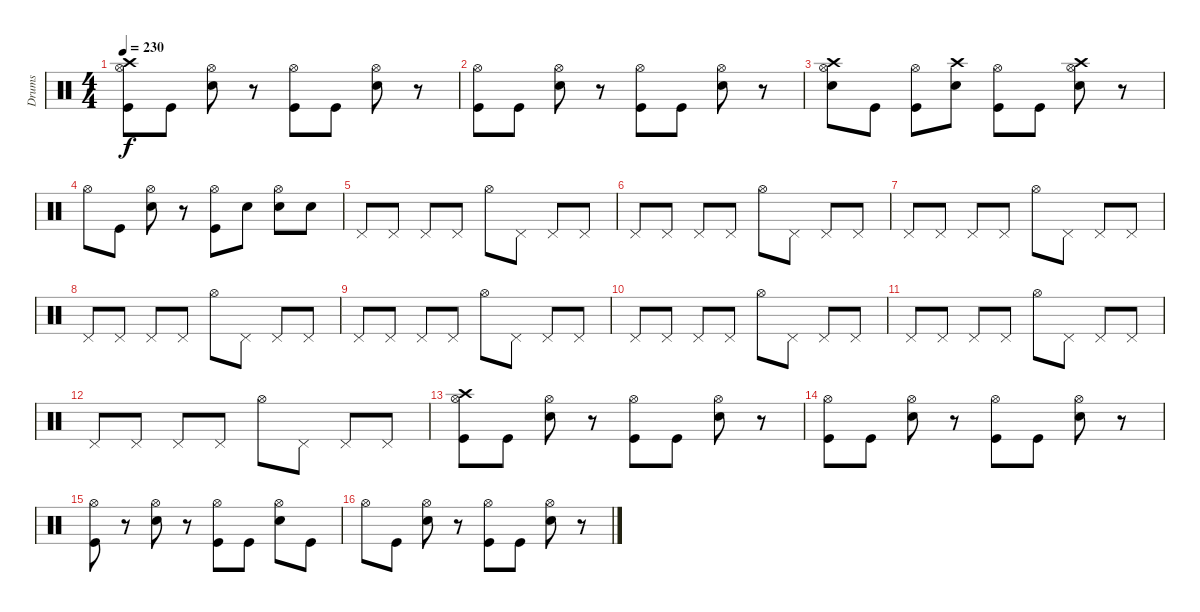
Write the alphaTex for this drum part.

\track ("Drums" "Drums") {instrument percussion}
\staff {score}
\articulation defaults
\ts (4 4)
\tempo 230
\clef neutral
\ks c
("Crash high (hit)" "Kick (hit)" "Hi-Hat (open)").8{dy f} "Kick (hit)".8 ("Electric Snare (hit)" "Hi-Hat (open)").8 r.8 ("Kick (hit)" "Hi-Hat (open)").8 "Kick (hit)".8 ("Electric Snare (hit)" "Hi-Hat (open)").8 r.8 |
("Kick (hit)" "Hi-Hat (open)").8 "Kick (hit)".8 ("Electric Snare (hit)" "Hi-Hat (open)").8 r.8 ("Kick (hit)" "Hi-Hat (open)").8 "Kick (hit)".8 ("Electric Snare (hit)" "Hi-Hat (open)").8 r.8 |
("Crash high (hit)" "Electric Snare (hit)" "Hi-Hat (open)").8 "Kick (hit)".8 ("Kick (hit)" "Hi-Hat (open)").8 ("Crash high (hit)" "Electric Snare (hit)").8 ("Kick (hit)" "Hi-Hat (open)").8 "Kick (hit)".8 ("Crash high (hit)" "Electric Snare (hit)" "Hi-Hat (open)").8 r.8 |
"Hi-Hat (open)".8 "Kick (hit)".8 ("Electric Snare (hit)" "Hi-Hat (open)").8 r.8 ("Kick (hit)" "Hi-Hat (open)").8 "Electric Snare (hit)".8 ("Electric Snare (hit)" "Hi-Hat (open)").8 "Electric Snare (hit)".8 |
"Pedal Hi-Hat (hit)".8 "Pedal Hi-Hat (hit)".8 "Pedal Hi-Hat (hit)".8 "Pedal Hi-Hat (hit)".8 "Hi-Hat (open)".8 "Pedal Hi-Hat (hit)".8 "Pedal Hi-Hat (hit)".8 "Pedal Hi-Hat (hit)".8 |
"Pedal Hi-Hat (hit)".8 "Pedal Hi-Hat (hit)".8 "Pedal Hi-Hat (hit)".8 "Pedal Hi-Hat (hit)".8 "Hi-Hat (open)".8 "Pedal Hi-Hat (hit)".8 "Pedal Hi-Hat (hit)".8 "Pedal Hi-Hat (hit)".8 |
"Pedal Hi-Hat (hit)".8 "Pedal Hi-Hat (hit)".8 "Pedal Hi-Hat (hit)".8 "Pedal Hi-Hat (hit)".8 "Hi-Hat (open)".8 "Pedal Hi-Hat (hit)".8 "Pedal Hi-Hat (hit)".8 "Pedal Hi-Hat (hit)".8 |
"Pedal Hi-Hat (hit)".8 "Pedal Hi-Hat (hit)".8 "Pedal Hi-Hat (hit)".8 "Pedal Hi-Hat (hit)".8 "Hi-Hat (open)".8 "Pedal Hi-Hat (hit)".8 "Pedal Hi-Hat (hit)".8 "Pedal Hi-Hat (hit)".8 |
"Pedal Hi-Hat (hit)".8 "Pedal Hi-Hat (hit)".8 "Pedal Hi-Hat (hit)".8 "Pedal Hi-Hat (hit)".8 "Hi-Hat (open)".8 "Pedal Hi-Hat (hit)".8 "Pedal Hi-Hat (hit)".8 "Pedal Hi-Hat (hit)".8 |
"Pedal Hi-Hat (hit)".8 "Pedal Hi-Hat (hit)".8 "Pedal Hi-Hat (hit)".8 "Pedal Hi-Hat (hit)".8 "Hi-Hat (open)".8 "Pedal Hi-Hat (hit)".8 "Pedal Hi-Hat (hit)".8 "Pedal Hi-Hat (hit)".8 |
"Pedal Hi-Hat (hit)".8 "Pedal Hi-Hat (hit)".8 "Pedal Hi-Hat (hit)".8 "Pedal Hi-Hat (hit)".8 "Hi-Hat (open)".8 "Pedal Hi-Hat (hit)".8 "Pedal Hi-Hat (hit)".8 "Pedal Hi-Hat (hit)".8 |
"Pedal Hi-Hat (hit)".8 "Pedal Hi-Hat (hit)".8 "Pedal Hi-Hat (hit)".8 "Pedal Hi-Hat (hit)".8 "Hi-Hat (open)".8 "Pedal Hi-Hat (hit)".8 "Pedal Hi-Hat (hit)".8 "Pedal Hi-Hat (hit)".8 |
("Crash high (hit)" "Kick (hit)" "Hi-Hat (open)").8 "Kick (hit)".8 ("Electric Snare (hit)" "Hi-Hat (open)").8 r.8 ("Kick (hit)" "Hi-Hat (open)").8 "Kick (hit)".8 ("Electric Snare (hit)" "Hi-Hat (open)").8 r.8 |
("Kick (hit)" "Hi-Hat (open)").8 "Kick (hit)".8 ("Electric Snare (hit)" "Hi-Hat (open)").8 r.8 ("Kick (hit)" "Hi-Hat (open)").8 "Kick (hit)".8 ("Electric Snare (hit)" "Hi-Hat (open)").8 r.8 |
("Kick (hit)" "Hi-Hat (open)").8 r.8 ("Electric Snare (hit)" "Hi-Hat (open)").8 r.8 ("Kick (hit)" "Hi-Hat (open)").8 "Kick (hit)".8 ("Electric Snare (hit)" "Hi-Hat (open)").8 "Kick (hit)".8 |
"Hi-Hat (open)".8 "Kick (hit)".8 ("Electric Snare (hit)" "Hi-Hat (open)").8 r.8 ("Kick (hit)" "Hi-Hat (open)").8 "Kick (hit)".8 ("Electric Snare (hit)" "Hi-Hat (open)").8 r.8
